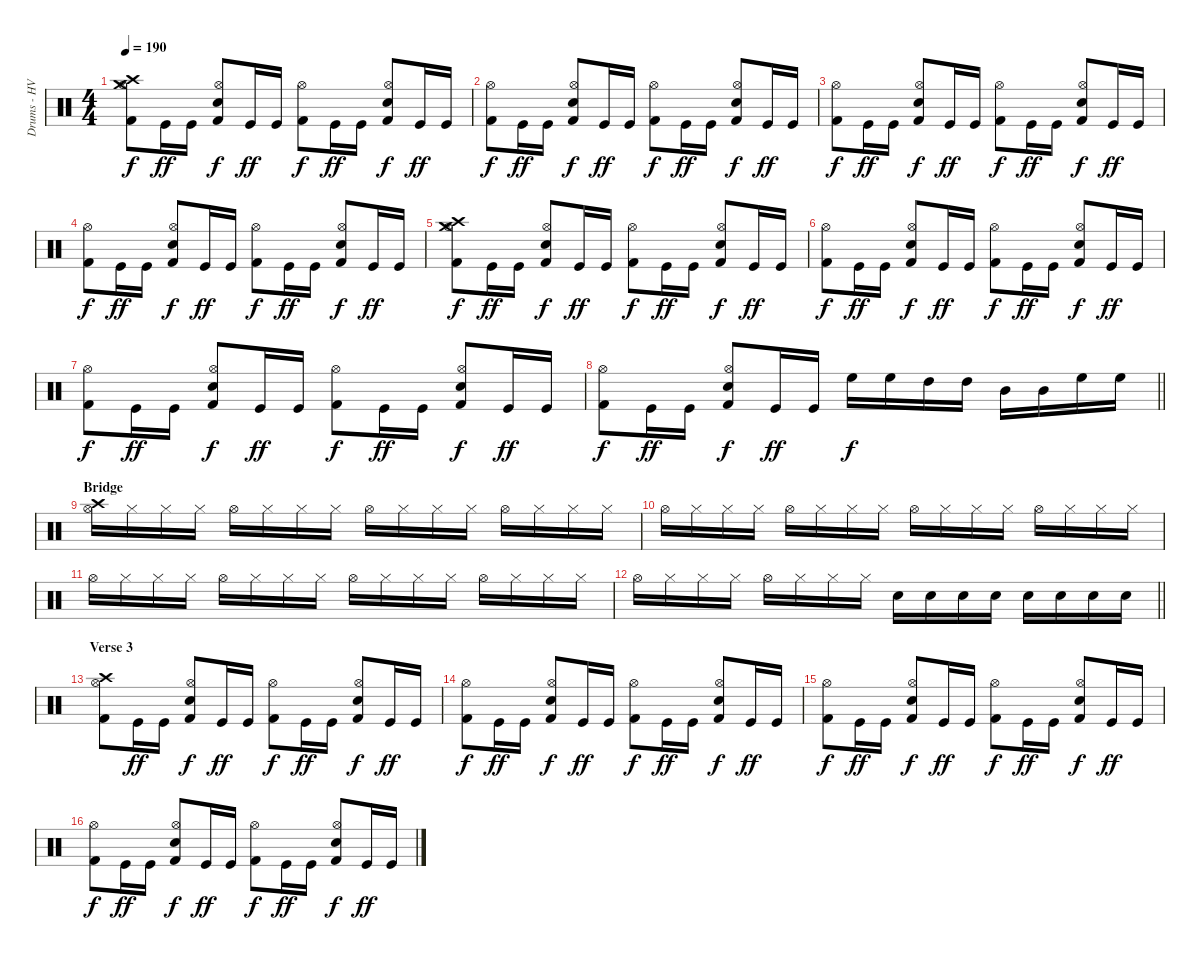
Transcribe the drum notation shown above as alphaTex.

\track ("Drums - HV NikiTon" "Drums - HV") {instrument percussion}
\staff {score}
\articulation defaults
\ts (4 4)
\tempo 190
\clef neutral
\ks c
("Crash medium (hit)" "Kick (hit) 2" "Hi-Hat (open)" "Crash high (hit)").8{dy f} "Kick (hit)".16{dy ff} "Kick (hit)".16 ("Electric Snare (hit)" "Kick (hit) 2" "Hi-Hat (open)").8{dy f} "Kick (hit)".16{dy ff} "Kick (hit)".16 ("Kick (hit) 2" "Hi-Hat (open)").8{dy f} "Kick (hit)".16{dy ff} "Kick (hit)".16 ("Electric Snare (hit)" "Kick (hit) 2" "Hi-Hat (open)").8{dy f} "Kick (hit)".16{dy ff} "Kick (hit)".16 |
("Kick (hit) 2" "Hi-Hat (open)").8{dy f} "Kick (hit)".16{dy ff} "Kick (hit)".16 ("Electric Snare (hit)" "Kick (hit) 2" "Hi-Hat (open)").8{dy f} "Kick (hit)".16{dy ff} "Kick (hit)".16 ("Kick (hit) 2" "Hi-Hat (open)").8{dy f} "Kick (hit)".16{dy ff} "Kick (hit)".16 ("Electric Snare (hit)" "Kick (hit) 2" "Hi-Hat (open)").8{dy f} "Kick (hit)".16{dy ff} "Kick (hit)".16 |
("Kick (hit) 2" "Hi-Hat (open)").8{dy f} "Kick (hit)".16{dy ff} "Kick (hit)".16 ("Electric Snare (hit)" "Kick (hit) 2" "Hi-Hat (open)").8{dy f} "Kick (hit)".16{dy ff} "Kick (hit)".16 ("Kick (hit) 2" "Hi-Hat (open)").8{dy f} "Kick (hit)".16{dy ff} "Kick (hit)".16 ("Electric Snare (hit)" "Kick (hit) 2" "Hi-Hat (open)").8{dy f} "Kick (hit)".16{dy ff} "Kick (hit)".16 |
("Kick (hit) 2" "Hi-Hat (open)").8{dy f} "Kick (hit)".16{dy ff} "Kick (hit)".16 ("Electric Snare (hit)" "Kick (hit) 2" "Hi-Hat (open)").8{dy f} "Kick (hit)".16{dy ff} "Kick (hit)".16 ("Kick (hit) 2" "Hi-Hat (open)").8{dy f} "Kick (hit)".16{dy ff} "Kick (hit)".16 ("Electric Snare (hit)" "Kick (hit) 2" "Hi-Hat (open)").8{dy f} "Kick (hit)".16{dy ff} "Kick (hit)".16 |
("Crash medium (hit)" "Kick (hit) 2" "Hi-Hat (open)" "Crash high (hit)").8{dy f} "Kick (hit)".16{dy ff} "Kick (hit)".16 ("Electric Snare (hit)" "Kick (hit) 2" "Hi-Hat (open)").8{dy f} "Kick (hit)".16{dy ff} "Kick (hit)".16 ("Kick (hit) 2" "Hi-Hat (open)").8{dy f} "Kick (hit)".16{dy ff} "Kick (hit)".16 ("Electric Snare (hit)" "Kick (hit) 2" "Hi-Hat (open)").8{dy f} "Kick (hit)".16{dy ff} "Kick (hit)".16 |
("Kick (hit) 2" "Hi-Hat (open)").8{dy f} "Kick (hit)".16{dy ff} "Kick (hit)".16 ("Electric Snare (hit)" "Kick (hit) 2" "Hi-Hat (open)").8{dy f} "Kick (hit)".16{dy ff} "Kick (hit)".16 ("Kick (hit) 2" "Hi-Hat (open)").8{dy f} "Kick (hit)".16{dy ff} "Kick (hit)".16 ("Electric Snare (hit)" "Kick (hit) 2" "Hi-Hat (open)").8{dy f} "Kick (hit)".16{dy ff} "Kick (hit)".16 |
("Kick (hit) 2" "Hi-Hat (open)").8{dy f} "Kick (hit)".16{dy ff} "Kick (hit)".16 ("Electric Snare (hit)" "Kick (hit) 2" "Hi-Hat (open)").8{dy f} "Kick (hit)".16{dy ff} "Kick (hit)".16 ("Kick (hit) 2" "Hi-Hat (open)").8{dy f} "Kick (hit)".16{dy ff} "Kick (hit)".16 ("Electric Snare (hit)" "Kick (hit) 2" "Hi-Hat (open)").8{dy f} "Kick (hit)".16{dy ff} "Kick (hit)".16 |
\barLineRight lightlight
("Kick (hit) 2" "Hi-Hat (open)").8{dy f} "Kick (hit)".16{dy ff} "Kick (hit)".16 ("Electric Snare (hit)" "Kick (hit) 2" "Hi-Hat (open)").8{dy f} "Kick (hit)".16{dy ff} "Kick (hit)".16 "High Floor Tom (hit)".16{dy f} "High Floor Tom (hit)".16 "High Tom (hit)".16 "High Tom (hit)".16 "Mid Tom (hit)".16 "Mid Tom (hit)".16 "High Floor Tom (hit)".16 "High Floor Tom (hit)".16 |
\section ("" "Bridge")
("Hi-Hat (open)" "Crash high (hit)").16 "Hi-Hat (closed)".16 "Hi-Hat (closed)".16 "Hi-Hat (closed)".16 "Hi-Hat (open)".16 "Hi-Hat (closed)".16 "Hi-Hat (closed)".16 "Hi-Hat (closed)".16 "Hi-Hat (open)".16 "Hi-Hat (closed)".16 "Hi-Hat (closed)".16 "Hi-Hat (closed)".16 "Hi-Hat (open)".16 "Hi-Hat (closed)".16 "Hi-Hat (closed)".16 "Hi-Hat (closed)".16 |
"Hi-Hat (open)".16 "Hi-Hat (closed)".16 "Hi-Hat (closed)".16 "Hi-Hat (closed)".16 "Hi-Hat (open)".16 "Hi-Hat (closed)".16 "Hi-Hat (closed)".16 "Hi-Hat (closed)".16 "Hi-Hat (open)".16 "Hi-Hat (closed)".16 "Hi-Hat (closed)".16 "Hi-Hat (closed)".16 "Hi-Hat (open)".16 "Hi-Hat (closed)".16 "Hi-Hat (closed)".16 "Hi-Hat (closed)".16 |
"Hi-Hat (open)".16 "Hi-Hat (closed)".16 "Hi-Hat (closed)".16 "Hi-Hat (closed)".16 "Hi-Hat (open)".16 "Hi-Hat (closed)".16 "Hi-Hat (closed)".16 "Hi-Hat (closed)".16 "Hi-Hat (open)".16 "Hi-Hat (closed)".16 "Hi-Hat (closed)".16 "Hi-Hat (closed)".16 "Hi-Hat (open)".16 "Hi-Hat (closed)".16 "Hi-Hat (closed)".16 "Hi-Hat (closed)".16 |
\barLineRight lightlight "Hi-Hat (open)".16 "Hi-Hat (closed)".16 "Hi-Hat (closed)".16 "Hi-Hat (closed)".16 "Hi-Hat (open)".16 "Hi-Hat (closed)".16 "Hi-Hat (closed)".16 "Hi-Hat (closed)".16 "Electric Snare (hit)".16 "Electric Snare (hit)".16 "Electric Snare (hit)".16 "Electric Snare (hit)".16 "Electric Snare (hit)".16 "Electric Snare (hit)".16 "Electric Snare (hit)".16 "Electric Snare (hit)".16
|
\section ("" "Verse 3")
("Kick (hit) 2" "Hi-Hat (open)" "Crash high (hit)").8 "Kick (hit)".16{dy ff} "Kick (hit)".16 ("Electric Snare (hit)" "Kick (hit) 2" "Hi-Hat (open)").8{dy f} "Kick (hit)".16{dy ff} "Kick (hit)".16 ("Kick (hit) 2" "Hi-Hat (open)").8{dy f} "Kick (hit)".16{dy ff} "Kick (hit)".16 ("Electric Snare (hit)" "Kick (hit) 2" "Hi-Hat (open)").8{dy f} "Kick (hit)".16{dy ff} "Kick (hit)".16 |
("Kick (hit) 2" "Hi-Hat (open)").8{dy f} "Kick (hit)".16{dy ff} "Kick (hit)".16 ("Electric Snare (hit)" "Kick (hit) 2" "Hi-Hat (open)").8{dy f} "Kick (hit)".16{dy ff} "Kick (hit)".16 ("Kick (hit) 2" "Hi-Hat (open)").8{dy f} "Kick (hit)".16{dy ff} "Kick (hit)".16 ("Electric Snare (hit)" "Kick (hit) 2" "Hi-Hat (open)").8{dy f} "Kick (hit)".16{dy ff} "Kick (hit)".16 |
("Kick (hit) 2" "Hi-Hat (open)").8{dy f} "Kick (hit)".16{dy ff} "Kick (hit)".16 ("Electric Snare (hit)" "Kick (hit) 2" "Hi-Hat (open)").8{dy f} "Kick (hit)".16{dy ff} "Kick (hit)".16 ("Kick (hit) 2" "Hi-Hat (open)").8{dy f} "Kick (hit)".16{dy ff} "Kick (hit)".16 ("Electric Snare (hit)" "Kick (hit) 2" "Hi-Hat (open)").8{dy f} "Kick (hit)".16{dy ff} "Kick (hit)".16 |
("Kick (hit) 2" "Hi-Hat (open)").8{dy f} "Kick (hit)".16{dy ff} "Kick (hit)".16 ("Electric Snare (hit)" "Kick (hit) 2" "Hi-Hat (open)").8{dy f} "Kick (hit)".16{dy ff} "Kick (hit)".16 ("Kick (hit) 2" "Hi-Hat (open)").8{dy f} "Kick (hit)".16{dy ff} "Kick (hit)".16 ("Electric Snare (hit)" "Kick (hit) 2" "Hi-Hat (open)").8{dy f} "Kick (hit)".16{dy ff} "Kick (hit)".16
